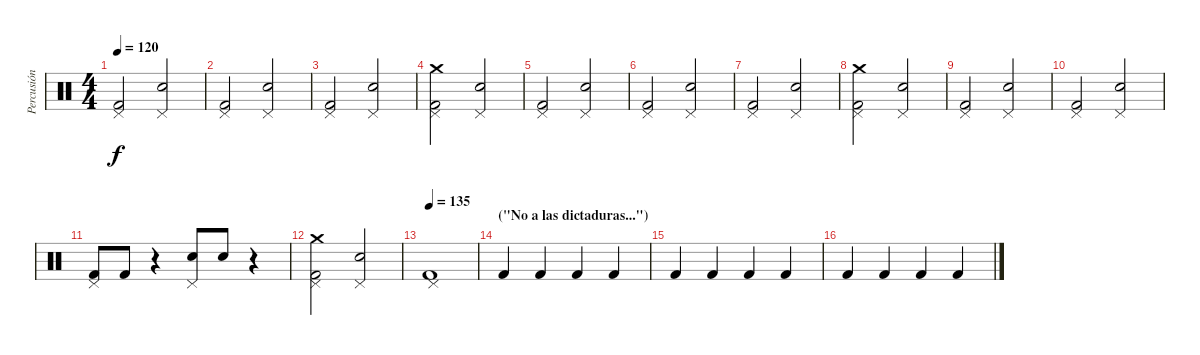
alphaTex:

\track ("Percusión" "Percusión") {instrument percussion}
\staff {score}
\articulation defaults
\ts (4 4)
\tempo 120
\clef neutral
\ks c
("Pedal Hi-Hat (hit)" "Kick (hit) 2").2{dy f} ("Pedal Hi-Hat (hit)" "Snare (hit) 2").2 |
("Pedal Hi-Hat (hit)" "Kick (hit) 2").2 ("Pedal Hi-Hat (hit)" "Snare (hit) 2").2 |
("Pedal Hi-Hat (hit)" "Kick (hit) 2").2 ("Pedal Hi-Hat (hit)" "Snare (hit) 2").2 |
("Crash medium (hit)" "Pedal Hi-Hat (hit)" "Kick (hit) 2").2 ("Pedal Hi-Hat (hit)" "Snare (hit) 2").2 |
("Pedal Hi-Hat (hit)" "Kick (hit) 2").2 ("Pedal Hi-Hat (hit)" "Snare (hit) 2").2 |
("Pedal Hi-Hat (hit)" "Kick (hit) 2").2 ("Pedal Hi-Hat (hit)" "Snare (hit) 2").2 |
("Pedal Hi-Hat (hit)" "Kick (hit) 2").2 ("Pedal Hi-Hat (hit)" "Snare (hit) 2").2 |
("Crash medium (hit)" "Pedal Hi-Hat (hit)" "Kick (hit) 2").2 ("Pedal Hi-Hat (hit)" "Snare (hit) 2").2 |
("Pedal Hi-Hat (hit)" "Kick (hit) 2").2 ("Pedal Hi-Hat (hit)" "Snare (hit) 2").2 |
("Pedal Hi-Hat (hit)" "Kick (hit) 2").2 ("Pedal Hi-Hat (hit)" "Snare (hit) 2").2 |
("Pedal Hi-Hat (hit)" "Kick (hit) 2").8 "Kick (hit) 2".8 r.4 ("Pedal Hi-Hat (hit)" "Snare (hit) 2").8 "Snare (hit) 2".8 r.4 |
("Crash medium (hit)" "Pedal Hi-Hat (hit)" "Kick (hit) 2").2 ("Pedal Hi-Hat (hit)" "Snare (hit) 2").2 |
\tempo 135
("Pedal Hi-Hat (hit)" "Kick (hit) 2").1 |
\section ("" "(\"No a las dictaduras...\")")
"Kick (hit) 2".4 "Kick (hit) 2".4 "Kick (hit) 2".4 "Kick (hit) 2".4 |
"Kick (hit) 2".4 "Kick (hit) 2".4 "Kick (hit) 2".4 "Kick (hit) 2".4 |
"Kick (hit) 2".4 "Kick (hit) 2".4 "Kick (hit) 2".4 "Kick (hit) 2".4
